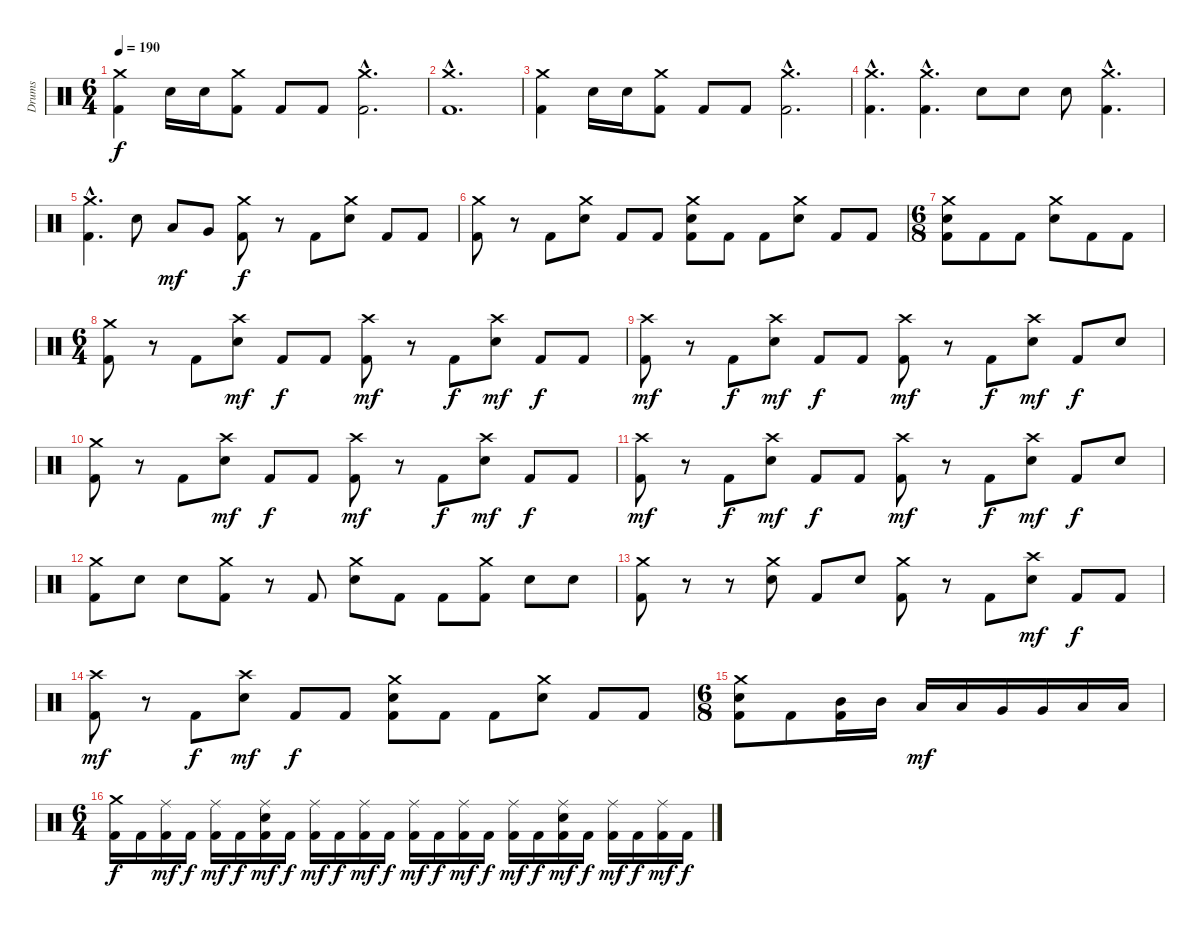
\track ("Drums" "Drums") {instrument percussion}
\staff {score}
\articulation defaults
\ts (6 4)
\tempo 190
\clef neutral
\ks c
("Crash medium (hit)" "Kick (hit) 2").4{dy f} "Snare (hit) 2".16 "Snare (hit) 2".16 ("Crash medium (hit)" "Kick (hit) 2").8 "Kick (hit) 2".8 "Kick (hit) 2".8 ("Crash medium (hit)"{hac} "Kick (hit) 2"{hac}).2{d} |
("Crash medium (hit)"{hac} "Kick (hit) 2"{hac}).1{d} |
("Crash medium (hit)" "Kick (hit) 2").4 "Snare (hit) 2".16 "Snare (hit) 2".16 ("Crash medium (hit)" "Kick (hit) 2").8 "Kick (hit) 2".8 "Kick (hit) 2".8 ("Crash medium (hit)"{hac} "Kick (hit) 2"{hac}).2{d} |
("Crash medium (hit)"{hac} "Kick (hit) 2"{hac}).4{d} ("Crash medium (hit)"{hac} "Kick (hit) 2"{hac}).4{d} "Snare (hit) 2".8 "Snare (hit) 2".8 "Snare (hit) 2".8 ("Crash medium (hit)"{hac} "Kick (hit) 2"{hac}).4{d} |
("Crash medium (hit)"{hac} "Kick (hit) 2"{hac}).4{d} "Snare (hit) 2".8 "Low Tom (hit)".8{dy mf} "Very Low Tom (hit)".8 ("Crash medium (hit)" "Kick (hit) 2").8{dy f} r.8 "Kick (hit) 2".8 ("Crash medium (hit)" "Snare (hit) 2").8 "Kick (hit) 2".8 "Kick (hit) 2".8 |
("Crash medium (hit)" "Kick (hit) 2").8 r.8 "Kick (hit) 2".8 ("Crash medium (hit)" "Snare (hit) 2").8 "Kick (hit) 2".8 "Kick (hit) 2".8 ("Crash medium (hit)" "Snare (hit) 2" "Kick (hit) 2").8 "Kick (hit) 2".8 "Kick (hit) 2".8 ("Crash medium (hit)" "Snare (hit) 2").8 "Kick (hit) 2".8 "Kick (hit) 2".8 |
\ts (6 8)
("Crash medium (hit)" "Snare (hit) 2" "Kick (hit) 2").8 "Kick (hit) 2".8 "Kick (hit) 2".8 ("Crash medium (hit)" "Snare (hit) 2").8 "Kick (hit) 2".8 "Kick (hit) 2".8 |
\ts (6 4)
("Crash medium (hit)" "Kick (hit) 2").8 r.8 "Kick (hit) 2".8 ("Crash high (hit)" "Snare (hit) 2").8{dy mf} "Kick (hit) 2".8{dy f} "Kick (hit) 2".8 ("Crash high (hit)" "Kick (hit) 2").8{dy mf} r.8 "Kick (hit) 2".8{dy f} ("Crash high (hit)" "Snare (hit) 2").8{dy mf} "Kick (hit) 2".8{dy f} "Kick (hit) 2".8 |
("Crash high (hit)" "Kick (hit) 2").8{dy mf} r.8 "Kick (hit) 2".8{dy f} ("Crash high (hit)" "Snare (hit) 2").8{dy mf} "Kick (hit) 2".8{dy f} "Kick (hit) 2".8 ("Crash high (hit)" "Kick (hit) 2").8{dy mf} r.8 "Kick (hit) 2".8{dy f} ("Crash high (hit)" "Snare (hit) 2").8{dy mf} "Kick (hit) 2".8{dy f} "Snare (hit) 2".8 |
("Crash medium (hit)" "Kick (hit) 2").8 r.8 "Kick (hit) 2".8 ("Crash high (hit)" "Snare (hit) 2").8{dy mf} "Kick (hit) 2".8{dy f} "Kick (hit) 2".8 ("Crash high (hit)" "Kick (hit) 2").8{dy mf} r.8 "Kick (hit) 2".8{dy f} ("Crash high (hit)" "Snare (hit) 2").8{dy mf} "Kick (hit) 2".8{dy f} "Kick (hit) 2".8 |
("Crash high (hit)" "Kick (hit) 2").8{dy mf} r.8 "Kick (hit) 2".8{dy f} ("Crash high (hit)" "Snare (hit) 2").8{dy mf} "Kick (hit) 2".8{dy f} "Kick (hit) 2".8 ("Crash high (hit)" "Kick (hit) 2").8{dy mf} r.8 "Kick (hit) 2".8{dy f} ("Crash high (hit)" "Snare (hit) 2").8{dy mf} "Kick (hit) 2".8{dy f} "Snare (hit) 2".8 |
("Crash medium (hit)" "Kick (hit) 2").8 "Snare (hit) 2".8 "Snare (hit) 2".8 ("Crash medium (hit)" "Kick (hit) 2").8 r.8 "Kick (hit) 2".8 ("Crash medium (hit)" "Snare (hit) 2").8 "Kick (hit) 2".8 "Kick (hit) 2".8 ("Crash medium (hit)" "Kick (hit) 2").8 "Snare (hit) 2".8 "Snare (hit) 2".8 |
("Crash medium (hit)" "Kick (hit) 2").8 r.8 r.8 ("Crash medium (hit)" "Snare (hit) 2").8 "Kick (hit) 2".8 "Snare (hit) 2".8 ("Crash medium (hit)" "Kick (hit) 2").8 r.8 "Kick (hit) 2".8 ("Crash high (hit)" "Snare (hit) 2").8{dy mf} "Kick (hit) 2".8{dy f} "Kick (hit) 2".8 |
("Crash high (hit)" "Kick (hit) 2").8{dy mf} r.8 "Kick (hit) 2".8{dy f} ("Crash high (hit)" "Snare (hit) 2").8{dy mf} "Kick (hit) 2".8{dy f} "Kick (hit) 2".8 ("Crash medium (hit)" "Snare (hit) 2" "Kick (hit) 2").8 "Kick (hit) 2".8 "Kick (hit) 2".8 ("Crash medium (hit)" "Snare (hit) 2").8 "Kick (hit) 2".8 "Kick (hit) 2".8 |
\ts (6 8)
("Crash medium (hit)" "Snare (hit) 2" "Kick (hit) 2").8 "Kick (hit) 2".8 ("Mid Tom (hit)" "Kick (hit) 2").16 "Mid Tom (hit)".16 "Low Tom (hit)".16{dy mf} "Low Tom (hit)".16 "Very Low Tom (hit)".16 "Very Low Tom (hit)".16 "Low Floor Tom (hit)".16 "Low Floor Tom (hit)".16 |
\ts (6 4)
("Crash medium (hit)" "Kick (hit) 2").16{dy f} "Kick (hit) 2".16 ("Ride (middle)" "Kick (hit) 2").16{dy mf} "Kick (hit) 2".16{dy f} ("Ride (middle)" "Kick (hit) 2").16{dy mf} "Kick (hit) 2".16{dy f} ("Ride (middle)" "Snare (hit) 2" "Kick (hit) 2").16{dy mf} "Kick (hit) 2".16{dy f} ("Ride (middle)" "Kick (hit) 2").16{dy mf} "Kick (hit) 2".16{dy f} ("Ride (middle)" "Kick (hit) 2").16{dy mf} "Kick (hit) 2".16{dy f} ("Ride (middle)" "Kick (hit) 2").16{dy mf} "Kick (hit) 2".16{dy f} ("Ride (middle)" "Kick (hit) 2").16{dy mf} "Kick (hit) 2".16{dy f} ("Ride (middle)" "Kick (hit) 2").16{dy mf} "Kick (hit) 2".16{dy f} ("Ride (middle)" "Snare (hit) 2" "Kick (hit) 2").16{dy mf} "Kick (hit) 2".16{dy f} ("Ride (middle)" "Kick (hit) 2").16{dy mf} "Kick (hit) 2".16{dy f} ("Ride (middle)" "Kick (hit) 2").16{dy mf} "Kick (hit) 2".16{dy f}
